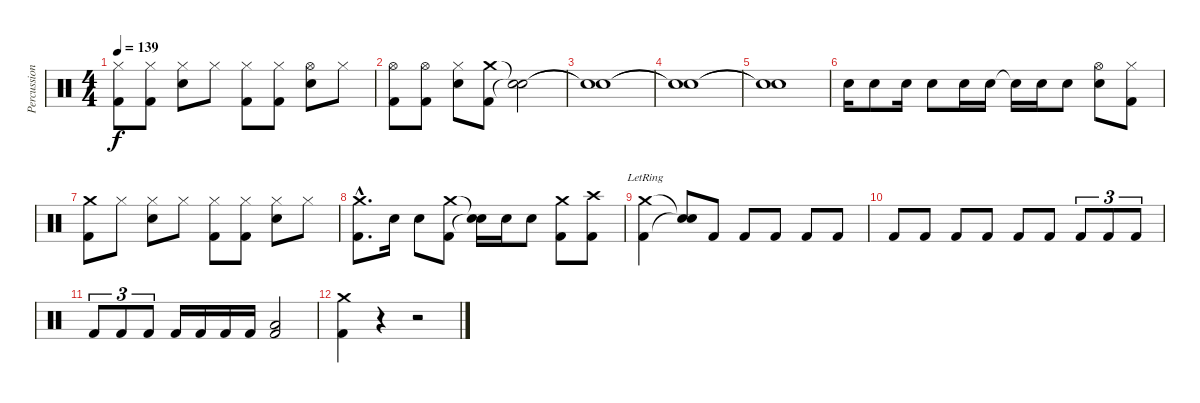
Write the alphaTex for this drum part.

\track ("Percussion" "Percussion") {instrument percussion}
\staff {score}
\articulation defaults
\ts (4 4)
\tempo 139
\clef neutral
\ks c
("Hi-Hat (closed)" "Kick (hit) 2").8{dy f} ("Hi-Hat (closed)" "Kick (hit) 2").8 ("Hi-Hat (closed)" "Metronome (bell)").8 "Hi-Hat (closed)".8 ("Hi-Hat (closed)" "Kick (hit) 2").8 ("Hi-Hat (closed)" "Kick (hit) 2").8 ("Hi-Hat (open)" "Metronome (bell)").8 "Hi-Hat (closed)".8 |
("Hi-Hat (open)" "Kick (hit) 2").8 ("Hi-Hat (open)" "Kick (hit) 2").8 ("Hi-Hat (closed)" "Metronome (bell)").8 ("Crash medium (hit)" "Kick (hit) 2").8 ("Snare (hit)"{t} "Snare (hit)"{t}).2 |
("Snare (hit)"{t} "Snare (hit)"{t}).1 |
("Snare (hit)"{t} "Snare (hit)"{t}).1 |
("Snare (hit)"{t} "Snare (hit)"{t}).1 |
"Metronome (bell)".16 "Metronome (bell)".8 "Metronome (bell)".16 "Metronome (bell)".8 "Metronome (bell)".16 "Metronome (bell)".16 "Snare (hit)"{t}.16 "Metronome (bell)".16 "Metronome (bell)".8 ("Hi-Hat (open)" "Metronome (bell)").8 ("Hi-Hat (closed)" "Kick (hit) 2").8 |
("Crash medium (hit)" "Kick (hit) 2").8 "Hi-Hat (closed)".8 ("Hi-Hat (closed)" "Metronome (bell)").8 "Hi-Hat (closed)".8 ("Hi-Hat (closed)" "Kick (hit) 2").8 ("Hi-Hat (closed)" "Kick (hit) 2").8 ("Hi-Hat (closed)" "Metronome (bell)").8 "Hi-Hat (closed)".8 |
("Crash medium (hit)"{hac} "Kick (hit) 2"{hac}).8{d} "Metronome (bell)".16 "Metronome (bell)".8 ("Crash medium (hit)" "Kick (hit) 2").8 ("Snare (hit)"{t} "Snare (hit)"{t}).16 "Metronome (bell)".16 "Metronome (bell)".8 ("Crash medium (hit)" "Kick (hit) 2").8 ("Crash high (hit)" "Kick (hit) 2").8 |
("Crash medium (hit)"{lr} "Kick (hit) 2").4 ("Snare (hit)"{t} "Snare (hit)"{t}).8 "Kick (hit) 2".8 "Kick (hit) 2".8 "Kick (hit) 2".8 "Kick (hit) 2".8 "Kick (hit) 2".8 |
"Kick (hit) 2".8 "Kick (hit) 2".8 "Kick (hit) 2".8 "Kick (hit) 2".8 "Kick (hit) 2".8 "Kick (hit) 2".8 "Kick (hit) 2".8{tu (3 2)} "Kick (hit) 2".8{tu (3 2)} "Kick (hit) 2".8{tu (3 2)} |
"Kick (hit) 2".8{tu (3 2)} "Kick (hit) 2".8{tu (3 2)} "Kick (hit) 2".8{tu (3 2)} "Kick (hit) 2".16 "Kick (hit) 2".16 "Kick (hit) 2".16 "Kick (hit) 2".16 ("Low Tom (hit)" "Kick (hit) 2").2 |
("Crash medium (hit)" "Kick (hit) 2").4 r.4 r.2
